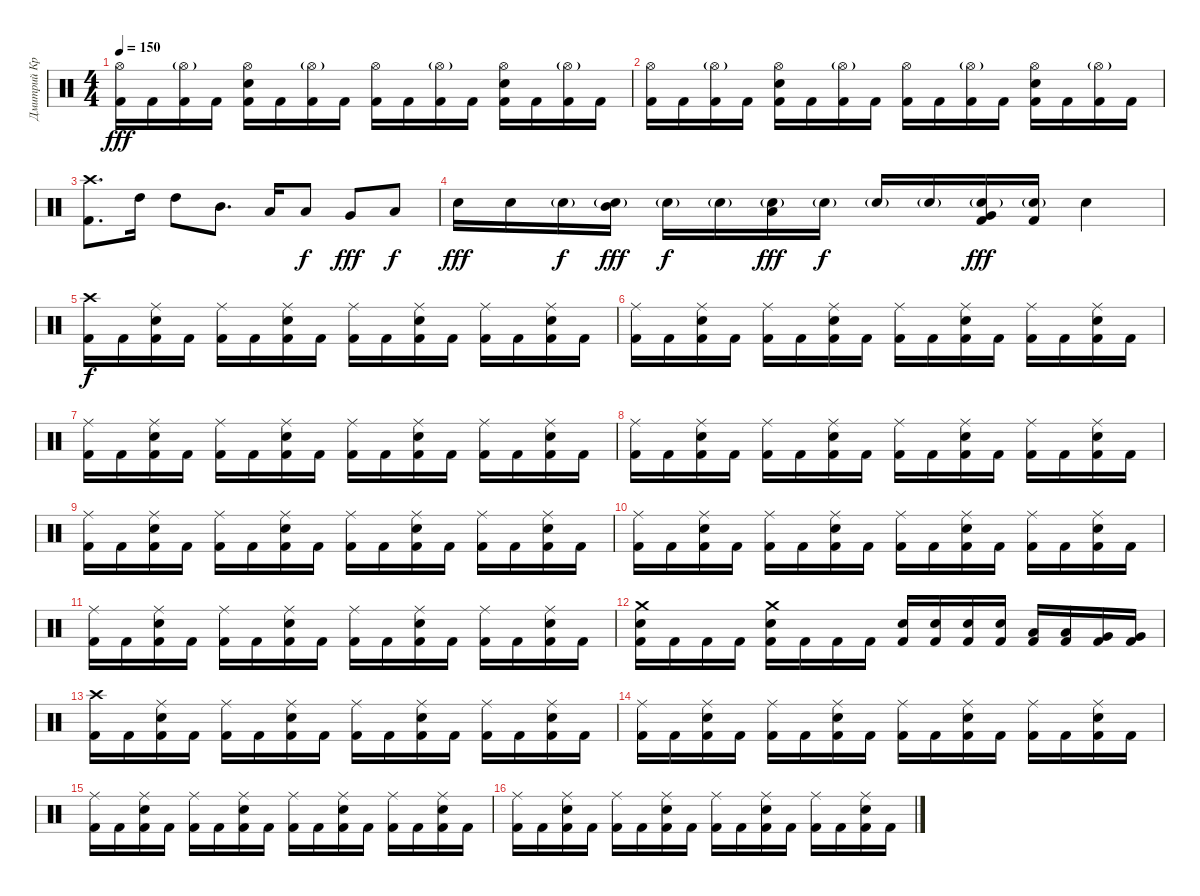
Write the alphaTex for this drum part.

\track ("Дмитрий Кривенков" "Дмитрий Кр") {instrument percussion}
\staff {score}
\articulation defaults
\ts (4 4)
\tempo 150
\clef neutral
\ks c
("Hi-Hat (open)" "Kick (hit) 2").16{dy fff} "Kick (hit) 2".16 ("Hi-Hat (open)"{g} "Kick (hit) 2").16 "Kick (hit) 2".16 ("Hi-Hat (open)" "Electric Snare (hit)" "Kick (hit) 2").16 "Kick (hit) 2".16 ("Hi-Hat (open)"{g} "Kick (hit) 2").16 "Kick (hit) 2".16 ("Hi-Hat (open)" "Kick (hit) 2").16 "Kick (hit) 2".16 ("Hi-Hat (open)"{g} "Kick (hit) 2").16 "Kick (hit) 2".16 ("Hi-Hat (open)" "Electric Snare (hit)" "Kick (hit) 2").16 "Kick (hit) 2".16 ("Hi-Hat (open)"{g} "Kick (hit) 2").16 "Kick (hit) 2".16 |
("Hi-Hat (open)" "Kick (hit) 2").16 "Kick (hit) 2".16 ("Hi-Hat (open)"{g} "Kick (hit) 2").16 "Kick (hit) 2".16 ("Hi-Hat (open)" "Electric Snare (hit)" "Kick (hit) 2").16 "Kick (hit) 2".16 ("Hi-Hat (open)"{g} "Kick (hit) 2").16 "Kick (hit) 2".16 ("Hi-Hat (open)" "Kick (hit) 2").16 "Kick (hit) 2".16 ("Hi-Hat (open)"{g} "Kick (hit) 2").16 "Kick (hit) 2".16 ("Hi-Hat (open)" "Electric Snare (hit)" "Kick (hit) 2").16 "Kick (hit) 2".16 ("Hi-Hat (open)"{g} "Kick (hit) 2").16 "Kick (hit) 2".16 |
("Crash high (hit)" "Kick (hit) 2").8{d} "High Tom (hit)".16 "High Tom (hit)".8 "Mid Tom (hit)".8{d} "Low Tom (hit)".16 "Low Tom (hit)".8{dy f} "Very Low Tom (hit)".8{dy fff} "Low Floor Tom (hit)".8{dy f} |
"Electric Snare (hit)".16{dy fff} "Electric Snare (hit)".16 "Electric Snare (hit)"{g}.16{dy f} ("Mid Tom (hit)" "Electric Snare (hit)"{g}).16{dy fff} "Electric Snare (hit)"{g}.16{dy f} "Electric Snare (hit)"{g}.16 ("Low Tom (hit)" "Electric Snare (hit)"{g}).16{dy fff} "Electric Snare (hit)"{g}.16{dy f} "Electric Snare (hit)"{g}.16 "Electric Snare (hit)"{g}.16 ("Electric Snare (hit)"{g} "Very Low Tom (hit)" "Kick (hit) 2").16{dy fff} ("Electric Snare (hit)"{g} "Kick (hit) 2").16 "Electric Snare (hit)".4 |
("Crash high (hit)" "Kick (hit) 2").16{dy f} "Kick (hit) 2".16 ("Ride (middle)" "Electric Snare (hit)" "Kick (hit) 2").16 "Kick (hit) 2".16 ("Ride (middle)" "Kick (hit) 2").16 "Kick (hit) 2".16 ("Ride (middle)" "Electric Snare (hit)" "Kick (hit) 2").16 "Kick (hit) 2".16 ("Ride (middle)" "Kick (hit) 2").16 "Kick (hit) 2".16 ("Ride (middle)" "Electric Snare (hit)" "Kick (hit) 2").16 "Kick (hit) 2".16 ("Ride (middle)" "Kick (hit) 2").16 "Kick (hit) 2".16 ("Ride (middle)" "Electric Snare (hit)" "Kick (hit) 2").16 "Kick (hit) 2".16 |
("Ride (middle)" "Kick (hit) 2").16 "Kick (hit) 2".16 ("Ride (middle)" "Electric Snare (hit)" "Kick (hit) 2").16 "Kick (hit) 2".16 ("Ride (middle)" "Kick (hit) 2").16 "Kick (hit) 2".16 ("Ride (middle)" "Electric Snare (hit)" "Kick (hit) 2").16 "Kick (hit) 2".16 ("Ride (middle)" "Kick (hit) 2").16 "Kick (hit) 2".16 ("Ride (middle)" "Electric Snare (hit)" "Kick (hit) 2").16 "Kick (hit) 2".16 ("Ride (middle)" "Kick (hit) 2").16 "Kick (hit) 2".16 ("Ride (middle)" "Electric Snare (hit)" "Kick (hit) 2").16 "Kick (hit) 2".16 |
("Ride (middle)" "Kick (hit) 2").16 "Kick (hit) 2".16 ("Ride (middle)" "Electric Snare (hit)" "Kick (hit) 2").16 "Kick (hit) 2".16 ("Ride (middle)" "Kick (hit) 2").16 "Kick (hit) 2".16 ("Ride (middle)" "Electric Snare (hit)" "Kick (hit) 2").16 "Kick (hit) 2".16 ("Ride (middle)" "Kick (hit) 2").16 "Kick (hit) 2".16 ("Ride (middle)" "Electric Snare (hit)" "Kick (hit) 2").16 "Kick (hit) 2".16 ("Ride (middle)" "Kick (hit) 2").16 "Kick (hit) 2".16 ("Ride (middle)" "Electric Snare (hit)" "Kick (hit) 2").16 "Kick (hit) 2".16 |
("Ride (middle)" "Kick (hit) 2").16 "Kick (hit) 2".16 ("Ride (middle)" "Electric Snare (hit)" "Kick (hit) 2").16 "Kick (hit) 2".16 ("Ride (middle)" "Kick (hit) 2").16 "Kick (hit) 2".16 ("Ride (middle)" "Electric Snare (hit)" "Kick (hit) 2").16 "Kick (hit) 2".16 ("Ride (middle)" "Kick (hit) 2").16 "Kick (hit) 2".16 ("Ride (middle)" "Electric Snare (hit)" "Kick (hit) 2").16 "Kick (hit) 2".16 ("Ride (middle)" "Kick (hit) 2").16 "Kick (hit) 2".16 ("Ride (middle)" "Electric Snare (hit)" "Kick (hit) 2").16 "Kick (hit) 2".16 |
("Ride (middle)" "Kick (hit) 2").16 "Kick (hit) 2".16 ("Ride (middle)" "Electric Snare (hit)" "Kick (hit) 2").16 "Kick (hit) 2".16 ("Ride (middle)" "Kick (hit) 2").16 "Kick (hit) 2".16 ("Ride (middle)" "Electric Snare (hit)" "Kick (hit) 2").16 "Kick (hit) 2".16 ("Ride (middle)" "Kick (hit) 2").16 "Kick (hit) 2".16 ("Ride (middle)" "Electric Snare (hit)" "Kick (hit) 2").16 "Kick (hit) 2".16 ("Ride (middle)" "Kick (hit) 2").16 "Kick (hit) 2".16 ("Ride (middle)" "Electric Snare (hit)" "Kick (hit) 2").16 "Kick (hit) 2".16 |
("Ride (middle)" "Kick (hit) 2").16 "Kick (hit) 2".16 ("Ride (middle)" "Electric Snare (hit)" "Kick (hit) 2").16 "Kick (hit) 2".16 ("Ride (middle)" "Kick (hit) 2").16 "Kick (hit) 2".16 ("Ride (middle)" "Electric Snare (hit)" "Kick (hit) 2").16 "Kick (hit) 2".16 ("Ride (middle)" "Kick (hit) 2").16 "Kick (hit) 2".16 ("Ride (middle)" "Electric Snare (hit)" "Kick (hit) 2").16 "Kick (hit) 2".16 ("Ride (middle)" "Kick (hit) 2").16 "Kick (hit) 2".16 ("Ride (middle)" "Electric Snare (hit)" "Kick (hit) 2").16 "Kick (hit) 2".16 |
("Ride (middle)" "Kick (hit) 2").16 "Kick (hit) 2".16 ("Ride (middle)" "Electric Snare (hit)" "Kick (hit) 2").16 "Kick (hit) 2".16 ("Ride (middle)" "Kick (hit) 2").16 "Kick (hit) 2".16 ("Ride (middle)" "Electric Snare (hit)" "Kick (hit) 2").16 "Kick (hit) 2".16 ("Ride (middle)" "Kick (hit) 2").16 "Kick (hit) 2".16 ("Ride (middle)" "Electric Snare (hit)" "Kick (hit) 2").16 "Kick (hit) 2".16 ("Ride (middle)" "Kick (hit) 2").16 "Kick (hit) 2".16 ("Ride (middle)" "Electric Snare (hit)" "Kick (hit) 2").16 "Kick (hit) 2".16 |
("Crash medium (hit)" "Electric Snare (hit)" "Kick (hit) 2").16 "Kick (hit) 2".16 "Kick (hit) 2".16 "Kick (hit) 2".16 ("Crash medium (hit)" "Electric Snare (hit)" "Kick (hit) 2").16 "Kick (hit) 2".16 "Kick (hit) 2".16 "Kick (hit) 2".16 ("Electric Snare (hit)" "Kick (hit) 2").16 ("Electric Snare (hit)" "Kick (hit) 2").16 ("Electric Snare (hit)" "Kick (hit) 2").16 ("Electric Snare (hit)" "Kick (hit) 2").16 ("Low Tom (hit)" "Kick (hit) 2").16 ("Low Tom (hit)" "Kick (hit) 2").16 ("Very Low Tom (hit)" "Kick (hit) 2").16 ("Very Low Tom (hit)" "Kick (hit) 2").16 |
("Crash high (hit)" "Kick (hit) 2").16 "Kick (hit) 2".16 ("Ride (middle)" "Electric Snare (hit)" "Kick (hit) 2").16 "Kick (hit) 2".16 ("Ride (middle)" "Kick (hit) 2").16 "Kick (hit) 2".16 ("Ride (middle)" "Electric Snare (hit)" "Kick (hit) 2").16 "Kick (hit) 2".16 ("Ride (middle)" "Kick (hit) 2").16 "Kick (hit) 2".16 ("Ride (middle)" "Electric Snare (hit)" "Kick (hit) 2").16 "Kick (hit) 2".16 ("Ride (middle)" "Kick (hit) 2").16 "Kick (hit) 2".16 ("Ride (middle)" "Electric Snare (hit)" "Kick (hit) 2").16 "Kick (hit) 2".16 |
("Ride (middle)" "Kick (hit) 2").16 "Kick (hit) 2".16 ("Ride (middle)" "Electric Snare (hit)" "Kick (hit) 2").16 "Kick (hit) 2".16 ("Ride (middle)" "Kick (hit) 2").16 "Kick (hit) 2".16 ("Ride (middle)" "Electric Snare (hit)" "Kick (hit) 2").16 "Kick (hit) 2".16 ("Ride (middle)" "Kick (hit) 2").16 "Kick (hit) 2".16 ("Ride (middle)" "Electric Snare (hit)" "Kick (hit) 2").16 "Kick (hit) 2".16 ("Ride (middle)" "Kick (hit) 2").16 "Kick (hit) 2".16 ("Ride (middle)" "Electric Snare (hit)" "Kick (hit) 2").16 "Kick (hit) 2".16 |
("Ride (middle)" "Kick (hit) 2").16 "Kick (hit) 2".16 ("Ride (middle)" "Electric Snare (hit)" "Kick (hit) 2").16 "Kick (hit) 2".16 ("Ride (middle)" "Kick (hit) 2").16 "Kick (hit) 2".16 ("Ride (middle)" "Electric Snare (hit)" "Kick (hit) 2").16 "Kick (hit) 2".16 ("Ride (middle)" "Kick (hit) 2").16 "Kick (hit) 2".16 ("Ride (middle)" "Electric Snare (hit)" "Kick (hit) 2").16 "Kick (hit) 2".16 ("Ride (middle)" "Kick (hit) 2").16 "Kick (hit) 2".16 ("Ride (middle)" "Electric Snare (hit)" "Kick (hit) 2").16 "Kick (hit) 2".16 |
("Ride (middle)" "Kick (hit) 2").16 "Kick (hit) 2".16 ("Ride (middle)" "Electric Snare (hit)" "Kick (hit) 2").16 "Kick (hit) 2".16 ("Ride (middle)" "Kick (hit) 2").16 "Kick (hit) 2".16 ("Ride (middle)" "Electric Snare (hit)" "Kick (hit) 2").16 "Kick (hit) 2".16 ("Ride (middle)" "Kick (hit) 2").16 "Kick (hit) 2".16 ("Ride (middle)" "Electric Snare (hit)" "Kick (hit) 2").16 "Kick (hit) 2".16 ("Ride (middle)" "Kick (hit) 2").16 "Kick (hit) 2".16 ("Ride (middle)" "Electric Snare (hit)" "Kick (hit) 2").16 "Kick (hit) 2".16
